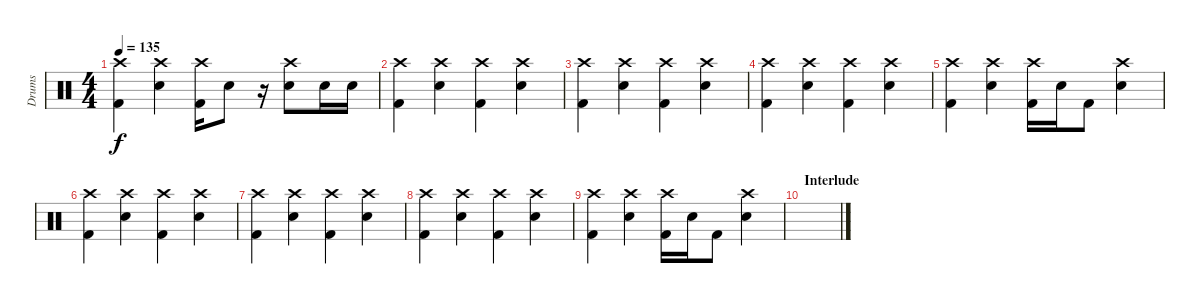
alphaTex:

\track ("Drums" "Drums") {instrument percussion}
\staff {score}
\articulation defaults
\ts (4 4)
\tempo 135
\clef neutral
\ks c
("Crash high (hit)" "Kick (hit) 2").4{dy f} ("Crash high (hit)" "Electric Snare (hit)").4 ("Crash high (hit)" "Kick (hit) 2").16 "Electric Snare (hit)".8 r.16 ("Crash high (hit)" "Electric Snare (hit)").8 "Electric Snare (hit)".16 "Electric Snare (hit)".16 |
("Crash high (hit)" "Kick (hit) 2").4 ("Crash high (hit)" "Electric Snare (hit)").4 ("Crash high (hit)" "Kick (hit) 2").4 ("Crash high (hit)" "Electric Snare (hit)").4 |
("Crash high (hit)" "Kick (hit) 2").4 ("Crash high (hit)" "Electric Snare (hit)").4 ("Crash high (hit)" "Kick (hit) 2").4 ("Crash high (hit)" "Electric Snare (hit)").4 |
("Crash high (hit)" "Kick (hit) 2").4 ("Crash high (hit)" "Electric Snare (hit)").4 ("Crash high (hit)" "Kick (hit) 2").4 ("Crash high (hit)" "Electric Snare (hit)").4 |
("Crash high (hit)" "Kick (hit) 2").4 ("Crash high (hit)" "Electric Snare (hit)").4 ("Crash high (hit)" "Kick (hit) 2").16 "Electric Snare (hit)".16 "Kick (hit) 2".8 ("Crash high (hit)" "Electric Snare (hit)").4 |
("Crash high (hit)" "Kick (hit) 2").4 ("Crash high (hit)" "Electric Snare (hit)").4 ("Crash high (hit)" "Kick (hit) 2").4 ("Crash high (hit)" "Electric Snare (hit)").4 |
("Crash high (hit)" "Kick (hit) 2").4 ("Crash high (hit)" "Electric Snare (hit)").4 ("Crash high (hit)" "Kick (hit) 2").4 ("Crash high (hit)" "Electric Snare (hit)").4 |
("Crash high (hit)" "Kick (hit) 2").4 ("Crash high (hit)" "Electric Snare (hit)").4 ("Crash high (hit)" "Kick (hit) 2").4 ("Crash high (hit)" "Electric Snare (hit)").4 |
("Crash high (hit)" "Kick (hit) 2").4 ("Crash high (hit)" "Electric Snare (hit)").4 ("Crash high (hit)" "Kick (hit) 2").16 "Electric Snare (hit)".16 "Kick (hit) 2".8 ("Crash high (hit)" "Electric Snare (hit)").4 |
\section ("" "Interlude")
